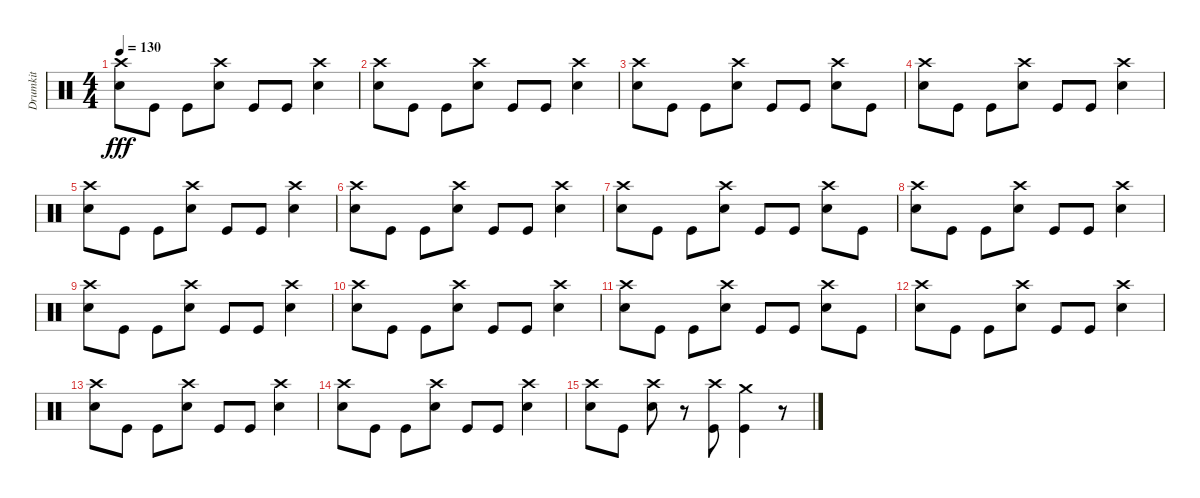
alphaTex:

\track ("Drumkit" "Drumkit") {instrument percussion}
\staff {score}
\articulation defaults
\ts (4 4)
\tempo 130
\clef neutral
\ks c
("Snare (hit) 2" "Crash high (hit)").8{dy fff} "Kick (hit)".8 "Kick (hit)".8 ("Snare (hit) 2" "Crash high (hit)").8 "Kick (hit)".8 "Kick (hit)".8 ("Snare (hit) 2" "Crash high (hit)").4 |
("Snare (hit) 2" "Crash high (hit)").8 "Kick (hit)".8 "Kick (hit)".8 ("Snare (hit) 2" "Crash high (hit)").8 "Kick (hit)".8 "Kick (hit)".8 ("Snare (hit) 2" "Crash high (hit)").4 |
("Snare (hit) 2" "Crash high (hit)").8 "Kick (hit)".8 "Kick (hit)".8 ("Snare (hit) 2" "Crash high (hit)").8 "Kick (hit)".8 "Kick (hit)".8 ("Snare (hit) 2" "Crash high (hit)").8 "Kick (hit)".8 |
("Snare (hit) 2" "Crash high (hit)").8 "Kick (hit)".8 "Kick (hit)".8 ("Snare (hit) 2" "Crash high (hit)").8 "Kick (hit)".8 "Kick (hit)".8 ("Snare (hit) 2" "Crash high (hit)").4 |
("Snare (hit) 2" "Crash high (hit)").8 "Kick (hit)".8 "Kick (hit)".8 ("Snare (hit) 2" "Crash high (hit)").8 "Kick (hit)".8 "Kick (hit)".8 ("Snare (hit) 2" "Crash high (hit)").4 |
("Snare (hit) 2" "Crash high (hit)").8 "Kick (hit)".8 "Kick (hit)".8 ("Snare (hit) 2" "Crash high (hit)").8 "Kick (hit)".8 "Kick (hit)".8 ("Snare (hit) 2" "Crash high (hit)").4 |
("Snare (hit) 2" "Crash high (hit)").8 "Kick (hit)".8 "Kick (hit)".8 ("Snare (hit) 2" "Crash high (hit)").8 "Kick (hit)".8 "Kick (hit)".8 ("Snare (hit) 2" "Crash high (hit)").8 "Kick (hit)".8 |
("Snare (hit) 2" "Crash high (hit)").8 "Kick (hit)".8 "Kick (hit)".8 ("Snare (hit) 2" "Crash high (hit)").8 "Kick (hit)".8 "Kick (hit)".8 ("Snare (hit) 2" "Crash high (hit)").4 |
("Snare (hit) 2" "Crash high (hit)").8 "Kick (hit)".8 "Kick (hit)".8 ("Snare (hit) 2" "Crash high (hit)").8 "Kick (hit)".8 "Kick (hit)".8 ("Snare (hit) 2" "Crash high (hit)").4 |
("Snare (hit) 2" "Crash high (hit)").8 "Kick (hit)".8 "Kick (hit)".8 ("Snare (hit) 2" "Crash high (hit)").8 "Kick (hit)".8 "Kick (hit)".8 ("Snare (hit) 2" "Crash high (hit)").4 |
("Snare (hit) 2" "Crash high (hit)").8 "Kick (hit)".8 "Kick (hit)".8 ("Snare (hit) 2" "Crash high (hit)").8 "Kick (hit)".8 "Kick (hit)".8 ("Snare (hit) 2" "Crash high (hit)").8 "Kick (hit)".8 |
("Snare (hit) 2" "Crash high (hit)").8 "Kick (hit)".8 "Kick (hit)".8 ("Snare (hit) 2" "Crash high (hit)").8 "Kick (hit)".8 "Kick (hit)".8 ("Snare (hit) 2" "Crash high (hit)").4 |
("Snare (hit) 2" "Crash high (hit)").8 "Kick (hit)".8 "Kick (hit)".8 ("Snare (hit) 2" "Crash high (hit)").8 "Kick (hit)".8 "Kick (hit)".8 ("Snare (hit) 2" "Crash high (hit)").4 |
("Snare (hit) 2" "Crash high (hit)").8 "Kick (hit)".8 "Kick (hit)".8 ("Snare (hit) 2" "Crash high (hit)").8 "Kick (hit)".8 "Kick (hit)".8 ("Snare (hit) 2" "Crash high (hit)").4 |
("Snare (hit) 2" "Crash high (hit)").8 "Kick (hit)".8 ("Crash high (hit)" "Snare (hit) 2").8 r.8 ("Kick (hit)" "Crash high (hit)").8 ("Kick (hit)" "Crash medium (hit)").4 r.8
